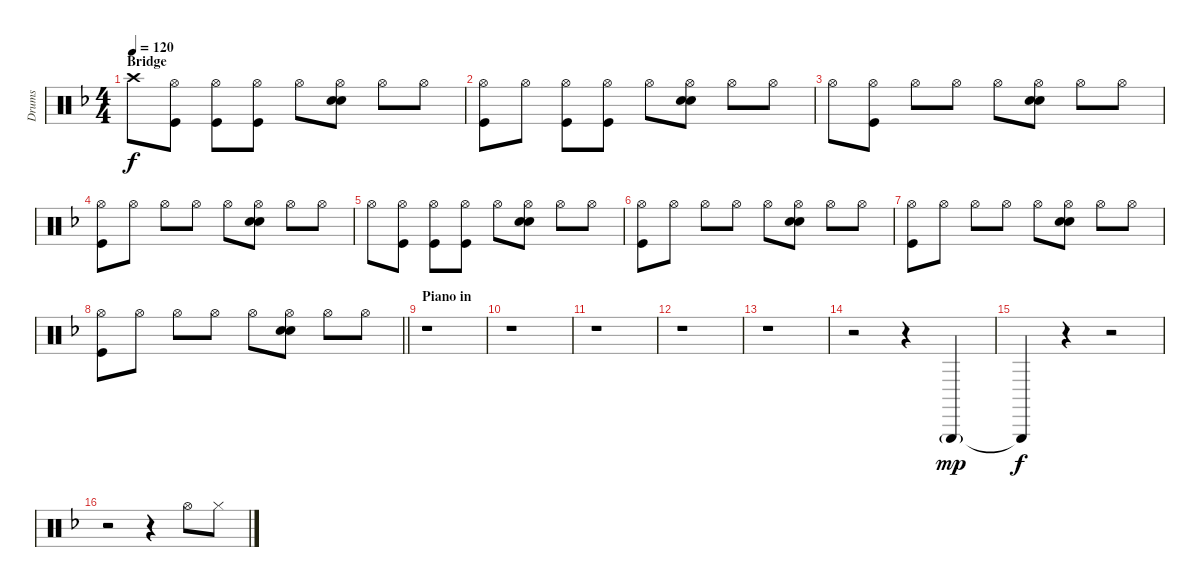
\track ("Drums" "Drums") {instrument percussion}
\staff {score}
\articulation defaults
\ts (4 4)
\section ("" "Bridge")
\tempo 120
\clef neutral
\ks f "Crash high (hit)".8{dy f}
("Hi-Hat (open)" "Kick (hit)").8 ("Hi-Hat (open)" "Kick (hit)").8 ("Hi-Hat (open)" "Kick (hit)").8 "Hi-Hat (open)".8 ("Hi-Hat (open)" "Electric Snare (hit)" "Snare (hit) 2").8 "Hi-Hat (open)".8 "Hi-Hat (open)".8 |
("Hi-Hat (open)" "Kick (hit)").8 "Hi-Hat (open)".8 ("Hi-Hat (open)" "Kick (hit)").8 ("Hi-Hat (open)" "Kick (hit)").8 "Hi-Hat (open)".8 ("Hi-Hat (open)" "Electric Snare (hit)" "Snare (hit) 2").8 "Hi-Hat (open)".8 "Hi-Hat (open)".8 |
"Hi-Hat (open)".8 ("Hi-Hat (open)" "Kick (hit)").8 "Hi-Hat (open)".8 "Hi-Hat (open)".8 "Hi-Hat (open)".8 ("Hi-Hat (open)" "Electric Snare (hit)" "Snare (hit) 2").8 "Hi-Hat (open)".8 "Hi-Hat (open)".8 |
("Hi-Hat (open)" "Kick (hit)").8 "Hi-Hat (open)".8 "Hi-Hat (open)".8 "Hi-Hat (open)".8 "Hi-Hat (open)".8 ("Hi-Hat (open)" "Electric Snare (hit)" "Snare (hit) 2").8 "Hi-Hat (open)".8 "Hi-Hat (open)".8 |
"Hi-Hat (open)".8 ("Hi-Hat (open)" "Kick (hit)").8 ("Hi-Hat (open)" "Kick (hit)").8 ("Hi-Hat (open)" "Kick (hit)").8 "Hi-Hat (open)".8 ("Hi-Hat (open)" "Electric Snare (hit)" "Snare (hit) 2").8 "Hi-Hat (open)".8 "Hi-Hat (open)".8 |
("Hi-Hat (open)" "Kick (hit)").8 "Hi-Hat (open)".8 "Hi-Hat (open)".8 "Hi-Hat (open)".8 "Hi-Hat (open)".8 ("Hi-Hat (open)" "Electric Snare (hit)" "Snare (hit) 2").8 "Hi-Hat (open)".8 "Hi-Hat (open)".8 |
("Hi-Hat (open)" "Kick (hit)").8 "Hi-Hat (open)".8 "Hi-Hat (open)".8 "Hi-Hat (open)".8 "Hi-Hat (open)".8 ("Hi-Hat (open)" "Electric Snare (hit)" "Snare (hit) 2").8 "Hi-Hat (open)".8 "Hi-Hat (open)".8 |
\barLineRight lightlight
("Hi-Hat (open)" "Kick (hit)").8{volume 6} "Hi-Hat (open)".8 "Hi-Hat (open)".8 "Hi-Hat (open)".8 "Hi-Hat (open)".8 ("Hi-Hat (open)" "Electric Snare (hit)" "Snare (hit) 2").8 "Hi-Hat (open)".8 "Hi-Hat (open)".8 |
\section ("" "Piano in")
r.1{volume 16} |
r.1 |
r.1 |
r.1 |
r.1 |
r.2 r.4 "Triangle (hit)"{g}.4{dy mp} |
"Triangle (hit)"{t}.4{dy f} r.4 r.2 |
r.2 r.4 "Hi-Hat (open)".8 "Hi-Hat (closed)".8
